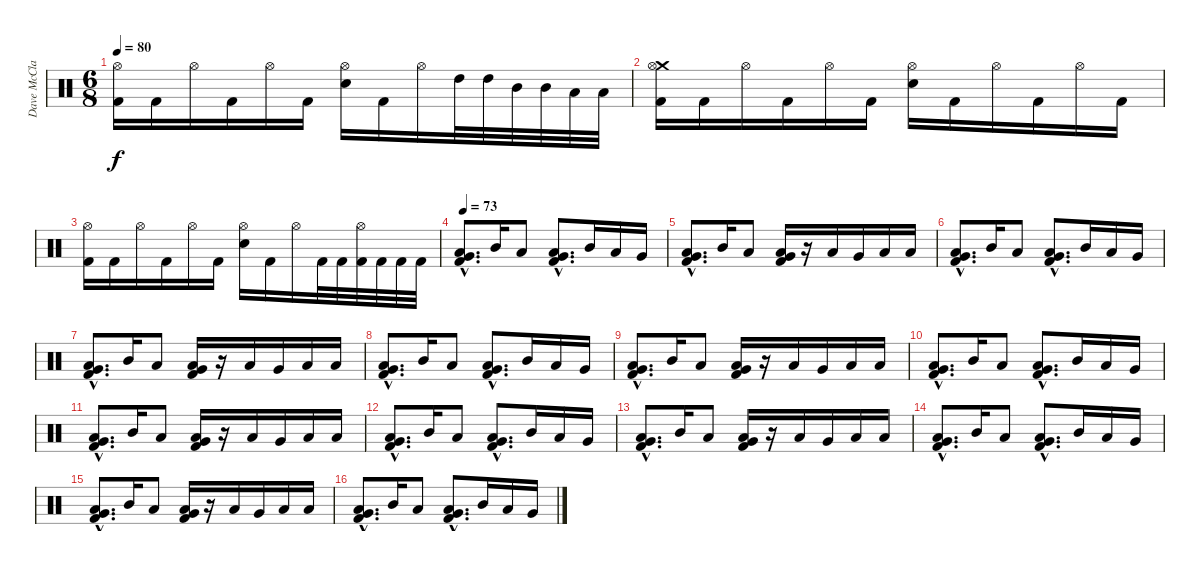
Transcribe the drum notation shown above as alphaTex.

\track ("Dave McClain" "Dave McCla") {instrument percussion}
\staff {score}
\articulation defaults
\ts (6 8)
\tempo 80
\clef neutral
\ks c
("Hi-Hat (open)" "Kick (hit) 2").16{dy f} "Kick (hit) 2".16 "Hi-Hat (open)".16 "Kick (hit) 2".16 "Hi-Hat (open)".16 "Kick (hit) 2".16 ("Hi-Hat (open)" "Snare (hit) 2").16 "Kick (hit) 2".16 "Hi-Hat (open)".16 "High Tom (hit)".32 "High Tom (hit)".32 "Mid Tom (hit)".32 "Mid Tom (hit)".32 "Low Tom (hit)".32 "Low Tom (hit)".32 |
("Crash medium (hit)" "Hi-Hat (open)" "Kick (hit) 2").16 "Kick (hit) 2".16 "Hi-Hat (open)".16 "Kick (hit) 2".16 "Hi-Hat (open)".16 "Kick (hit) 2".16 ("Hi-Hat (open)" "Snare (hit) 2").16 "Kick (hit) 2".16 "Hi-Hat (open)".16 "Kick (hit) 2".16 "Hi-Hat (open)".16 "Kick (hit) 2".16 |
("Hi-Hat (open)" "Kick (hit) 2").16 "Kick (hit) 2".16 "Hi-Hat (open)".16 "Kick (hit) 2".16 "Hi-Hat (open)".16 "Kick (hit) 2".16 ("Hi-Hat (open)" "Snare (hit) 2").16 "Kick (hit) 2".16 "Hi-Hat (open)".16 "Kick (hit) 2".32 "Kick (hit) 2".32 ("Hi-Hat (open)" "Kick (hit) 2").32 "Kick (hit) 2".32 "Kick (hit) 2".32 "Kick (hit) 2".32 |
\tempo 73
("Very Low Tom (hit)"{hac} "Low Floor Tom (hit)"{hac} "Kick (hit) 2"{hac}).8{d} "Mid Tom (hit)".16 "Low Tom (hit)".8 ("Very Low Tom (hit)"{hac} "Low Floor Tom (hit)"{hac} "Kick (hit) 2"{hac}).8{d} "Mid Tom (hit)".16 "Low Tom (hit)".16 "Very Low Tom (hit)".16 |
("Very Low Tom (hit)"{hac} "Low Floor Tom (hit)"{hac} "Kick (hit) 2"{hac}).8{d} "Mid Tom (hit)".16 "Low Tom (hit)".8 ("Very Low Tom (hit)" "Low Floor Tom (hit)" "Kick (hit) 2").16 r.16 "Low Tom (hit)".16 "Very Low Tom (hit)".16 "Low Floor Tom (hit)".16 "Low Floor Tom (hit)".16 |
("Very Low Tom (hit)"{hac} "Low Floor Tom (hit)"{hac} "Kick (hit) 2"{hac}).8{d} "Mid Tom (hit)".16 "Low Tom (hit)".8 ("Very Low Tom (hit)"{hac} "Low Floor Tom (hit)"{hac} "Kick (hit) 2"{hac}).8{d} "Mid Tom (hit)".16 "Low Tom (hit)".16 "Very Low Tom (hit)".16 |
("Very Low Tom (hit)"{hac} "Low Floor Tom (hit)"{hac} "Kick (hit) 2"{hac}).8{d} "Mid Tom (hit)".16 "Low Tom (hit)".8 ("Very Low Tom (hit)" "Low Floor Tom (hit)" "Kick (hit) 2").16 r.16 "Low Tom (hit)".16 "Very Low Tom (hit)".16 "Low Floor Tom (hit)".16 "Low Floor Tom (hit)".16 |
("Very Low Tom (hit)"{hac} "Low Floor Tom (hit)"{hac} "Kick (hit) 2"{hac}).8{d} "Mid Tom (hit)".16 "Low Tom (hit)".8 ("Very Low Tom (hit)"{hac} "Low Floor Tom (hit)"{hac} "Kick (hit) 2"{hac}).8{d} "Mid Tom (hit)".16 "Low Tom (hit)".16 "Very Low Tom (hit)".16 |
("Very Low Tom (hit)"{hac} "Low Floor Tom (hit)"{hac} "Kick (hit) 2"{hac}).8{d} "Mid Tom (hit)".16 "Low Tom (hit)".8 ("Very Low Tom (hit)" "Low Floor Tom (hit)" "Kick (hit) 2").16 r.16 "Low Tom (hit)".16 "Very Low Tom (hit)".16 "Low Floor Tom (hit)".16 "Low Floor Tom (hit)".16 |
("Very Low Tom (hit)"{hac} "Low Floor Tom (hit)"{hac} "Kick (hit) 2"{hac}).8{d} "Mid Tom (hit)".16 "Low Tom (hit)".8 ("Very Low Tom (hit)"{hac} "Low Floor Tom (hit)"{hac} "Kick (hit) 2"{hac}).8{d} "Mid Tom (hit)".16 "Low Tom (hit)".16 "Very Low Tom (hit)".16 |
("Very Low Tom (hit)"{hac} "Low Floor Tom (hit)"{hac} "Kick (hit) 2"{hac}).8{d} "Mid Tom (hit)".16 "Low Tom (hit)".8 ("Very Low Tom (hit)" "Low Floor Tom (hit)" "Kick (hit) 2").16 r.16 "Low Tom (hit)".16 "Very Low Tom (hit)".16 "Low Floor Tom (hit)".16 "Low Floor Tom (hit)".16 |
("Very Low Tom (hit)"{hac} "Low Floor Tom (hit)"{hac} "Kick (hit) 2"{hac}).8{d} "Mid Tom (hit)".16 "Low Tom (hit)".8 ("Very Low Tom (hit)"{hac} "Low Floor Tom (hit)"{hac} "Kick (hit) 2"{hac}).8{d} "Mid Tom (hit)".16 "Low Tom (hit)".16 "Very Low Tom (hit)".16 |
("Very Low Tom (hit)"{hac} "Low Floor Tom (hit)"{hac} "Kick (hit) 2"{hac}).8{d} "Mid Tom (hit)".16 "Low Tom (hit)".8 ("Very Low Tom (hit)" "Low Floor Tom (hit)" "Kick (hit) 2").16 r.16 "Low Tom (hit)".16 "Very Low Tom (hit)".16 "Low Floor Tom (hit)".16 "Low Floor Tom (hit)".16 |
("Very Low Tom (hit)"{hac} "Low Floor Tom (hit)"{hac} "Kick (hit) 2"{hac}).8{d} "Mid Tom (hit)".16 "Low Tom (hit)".8 ("Very Low Tom (hit)"{hac} "Low Floor Tom (hit)"{hac} "Kick (hit) 2"{hac}).8{d} "Mid Tom (hit)".16 "Low Tom (hit)".16 "Very Low Tom (hit)".16 |
("Very Low Tom (hit)"{hac} "Low Floor Tom (hit)"{hac} "Kick (hit) 2"{hac}).8{d} "Mid Tom (hit)".16 "Low Tom (hit)".8 ("Very Low Tom (hit)" "Low Floor Tom (hit)" "Kick (hit) 2").16 r.16 "Low Tom (hit)".16 "Very Low Tom (hit)".16 "Low Floor Tom (hit)".16 "Low Floor Tom (hit)".16 |
("Very Low Tom (hit)"{hac} "Low Floor Tom (hit)"{hac} "Kick (hit) 2"{hac}).8{d} "Mid Tom (hit)".16 "Low Tom (hit)".8 ("Very Low Tom (hit)"{hac} "Low Floor Tom (hit)"{hac} "Kick (hit) 2"{hac}).8{d} "Mid Tom (hit)".16 "Low Tom (hit)".16 "Very Low Tom (hit)".16
